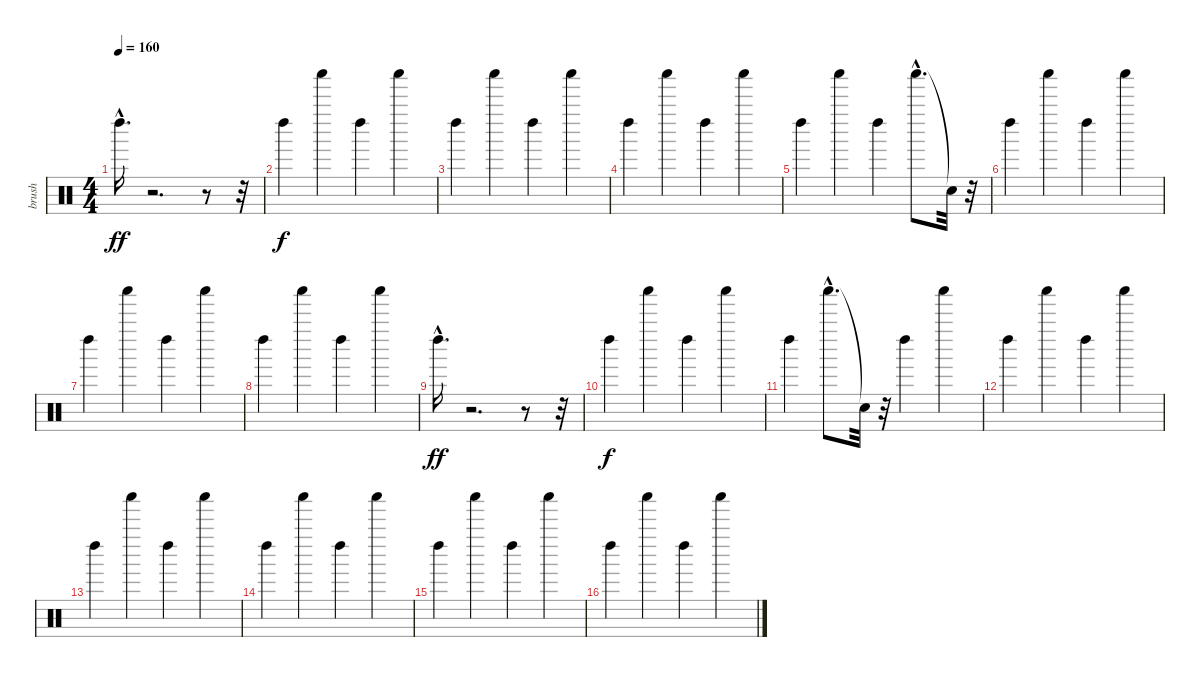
\track ("brush" "brush") {instrument percussion}
\staff {score}
\articulation defaults
\ts (4 4)
\tempo 160
\clef neutral
\ks c "Left Maraca (hit)"{hac}.16{d dy ff}
r.2{d} r.8 r.32 |
"Left Maraca (hit)".4{dy f} "Shaker (hit)".4 "Left Maraca (hit)".4 "Shaker (hit)".4 |
"Left Maraca (hit)".4 "Shaker (hit)".4 "Left Maraca (hit)".4 "Shaker (hit)".4 |
"Left Maraca (hit)".4 "Shaker (hit)".4 "Left Maraca (hit)".4 "Shaker (hit)".4 |
"Left Maraca (hit)".4 "Shaker (hit)".4 "Left Maraca (hit)".4 "Shaker (hit)"{hac}.8{d} "Snare (hit)"{t}.32 r.32 |
"Left Maraca (hit)".4 "Shaker (hit)".4 "Left Maraca (hit)".4 "Shaker (hit)".4 |
"Left Maraca (hit)".4 "Shaker (hit)".4 "Left Maraca (hit)".4 "Shaker (hit)".4 |
"Left Maraca (hit)".4 "Shaker (hit)".4 "Left Maraca (hit)".4 "Shaker (hit)".4 |
"Left Maraca (hit)"{hac}.16{d dy ff} r.2{d} r.8 r.32 |
"Left Maraca (hit)".4{dy f} "Shaker (hit)".4 "Left Maraca (hit)".4 "Shaker (hit)".4 |
"Left Maraca (hit)".4 "Shaker (hit)"{hac}.8{d} "Snare (hit)"{t}.32 r.32 "Left Maraca (hit)".4 "Shaker (hit)".4 |
"Left Maraca (hit)".4 "Shaker (hit)".4 "Left Maraca (hit)".4 "Shaker (hit)".4 |
"Left Maraca (hit)".4 "Shaker (hit)".4 "Left Maraca (hit)".4 "Shaker (hit)".4 |
"Left Maraca (hit)".4 "Shaker (hit)".4 "Left Maraca (hit)".4 "Shaker (hit)".4 |
"Left Maraca (hit)".4 "Shaker (hit)".4 "Left Maraca (hit)".4 "Shaker (hit)".4 |
"Left Maraca (hit)".4 "Shaker (hit)".4 "Left Maraca (hit)".4 "Shaker (hit)".4
